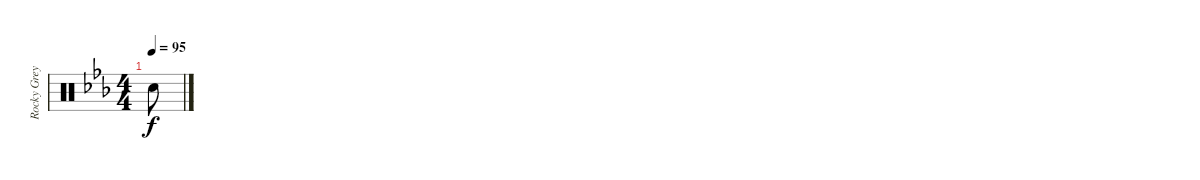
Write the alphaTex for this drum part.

\track ("Rocky Grey" "Rocky Grey") {instrument percussion}
\staff {score}
\articulation defaults
\ts (4 4)
\tempo 95
\clef neutral
\ks eb "Snare (hit)"{t}.8{dy f}
